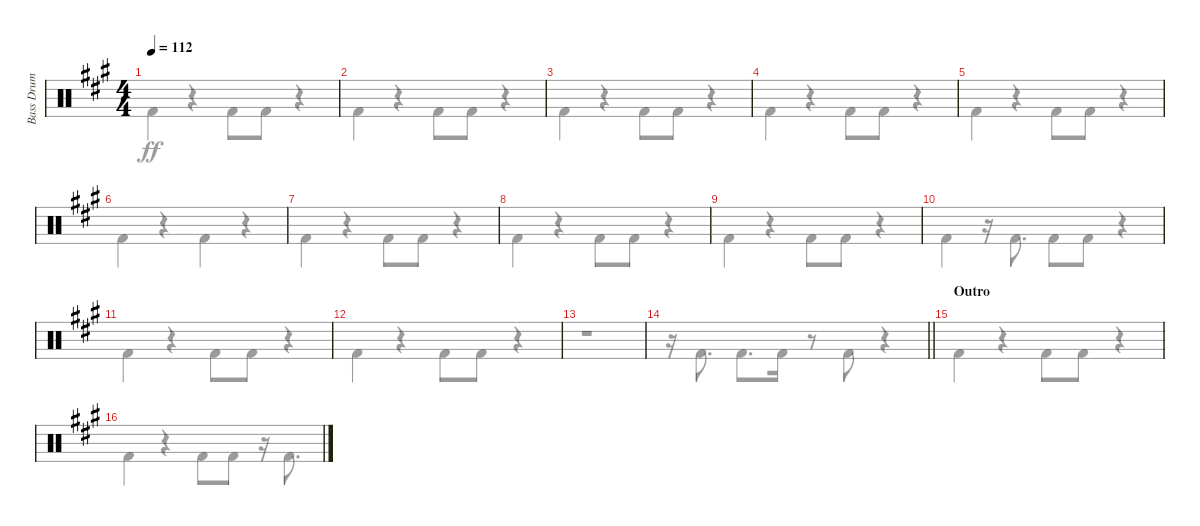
\track ("Bass Drum" "Bass Drum") {instrument percussion}
\staff {score}
\articulation defaults
\voice
\ts (4 4)
\tempo 112
\clef neutral
\ks f#minor
|
|
|
|
|
|
|
|
|
|
|
|
|
\barLineRight lightlight
|
\section ("" "Outro")
|
\voice
\clef neutral
\ks f#minor "Kick (hit) 2".4{dy ff}
r.4 "Kick (hit) 2".8 "Kick (hit) 2".8 r.4 |
"Kick (hit) 2".4 r.4 "Kick (hit) 2".8 "Kick (hit) 2".8 r.4 |
"Kick (hit) 2".4 r.4 "Kick (hit) 2".8 "Kick (hit) 2".8 r.4 |
"Kick (hit) 2".4 r.4 "Kick (hit) 2".8 "Kick (hit) 2".8 r.4 |
"Kick (hit) 2".4 r.4 "Kick (hit) 2".8 "Kick (hit) 2".8 r.4 |
"Kick (hit) 2".4 r.4 "Kick (hit) 2".4 r.4 |
"Kick (hit) 2".4 r.4 "Kick (hit) 2".8 "Kick (hit) 2".8 r.4 |
"Kick (hit) 2".4 r.4 "Kick (hit) 2".8 "Kick (hit) 2".8 r.4 |
"Kick (hit) 2".4 r.4 "Kick (hit) 2".8 "Kick (hit) 2".8 r.4 |
"Kick (hit) 2".4 r.16 "Kick (hit) 2".8{d} "Kick (hit) 2".8 "Kick (hit) 2".8 r.4 |
"Kick (hit) 2".4 r.4 "Kick (hit) 2".8 "Kick (hit) 2".8 r.4 |
"Kick (hit) 2".4 r.4 "Kick (hit) 2".8 "Kick (hit) 2".8 r.4 |
r.1 |
\barLineRight lightlight
r.16 "Kick (hit) 2".8{d} "Kick (hit) 2".8{d} "Kick (hit) 2".16 r.8 "Kick (hit) 2".8 r.4 |
"Kick (hit) 2".4 r.4 "Kick (hit) 2".8 "Kick (hit) 2".8 r.4 |
"Kick (hit) 2".4 r.4 "Kick (hit) 2".8 "Kick (hit) 2".8 r.16 "Kick (hit) 2".8{d}
